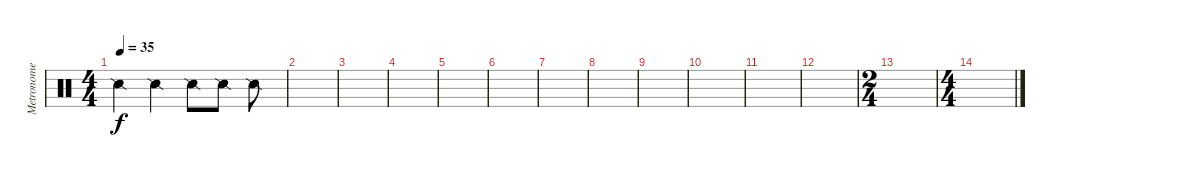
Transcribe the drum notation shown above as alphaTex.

\track ("Metronome" "Metronome") {instrument percussion}
\staff {score}
\articulation defaults
\ts (4 4)
\tempo 35
\clef neutral
\ks c "Snare (side stick) 2".4{dy f} "Snare (side stick) 2".4 "Snare (side stick) 2".8 "Snare (side stick) 2".8 "Snare (side stick) 2".8
|
|
|
|
|
|
|
|
|
|
|
|
\ts (2 4)
|
\ts (4 4)
